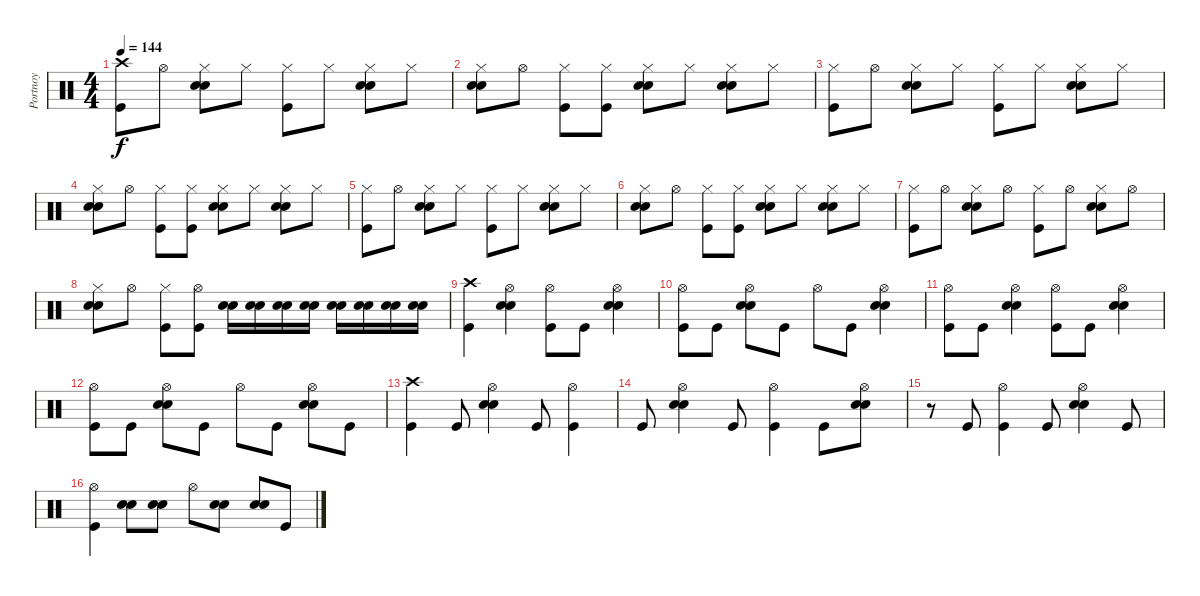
\track ("Portnoy" "Portnoy") {instrument percussion}
\staff {score}
\articulation defaults
\ts (4 4)
\tempo 144
\clef neutral
\ks c
("Crash high (hit)" "Kick (hit)").8{dy f} "Hi-Hat (open)".8 ("Hi-Hat (closed)" "Snare (hit) 2" "Electric Snare (hit)").8 "Hi-Hat (closed)".8 ("Hi-Hat (closed)" "Kick (hit)").8 "Hi-Hat (closed)".8 ("Hi-Hat (closed)" "Snare (hit) 2" "Electric Snare (hit)").8 "Hi-Hat (closed)".8 |
("Hi-Hat (closed)" "Snare (hit) 2" "Electric Snare (hit)").8 "Hi-Hat (open)".8 ("Hi-Hat (closed)" "Kick (hit)").8 ("Hi-Hat (closed)" "Kick (hit)").8 ("Hi-Hat (closed)" "Snare (hit) 2" "Electric Snare (hit)").8 "Hi-Hat (closed)".8 ("Hi-Hat (closed)" "Snare (hit) 2" "Electric Snare (hit)").8 "Hi-Hat (closed)".8 |
("Hi-Hat (closed)" "Kick (hit)").8 "Hi-Hat (open)".8 ("Hi-Hat (closed)" "Snare (hit) 2" "Electric Snare (hit)").8 "Hi-Hat (closed)".8 ("Hi-Hat (closed)" "Kick (hit)").8 "Hi-Hat (closed)".8 ("Hi-Hat (closed)" "Snare (hit) 2" "Electric Snare (hit)").8 "Hi-Hat (closed)".8 |
("Hi-Hat (closed)" "Snare (hit) 2" "Electric Snare (hit)").8 "Hi-Hat (open)".8 ("Hi-Hat (closed)" "Kick (hit)").8 ("Hi-Hat (closed)" "Kick (hit)").8 ("Hi-Hat (closed)" "Snare (hit) 2" "Electric Snare (hit)").8 "Hi-Hat (closed)".8 ("Hi-Hat (closed)" "Snare (hit) 2" "Electric Snare (hit)").8 "Hi-Hat (closed)".8 |
("Hi-Hat (closed)" "Kick (hit)").8 "Hi-Hat (open)".8 ("Hi-Hat (closed)" "Snare (hit) 2" "Electric Snare (hit)").8 "Hi-Hat (closed)".8 ("Hi-Hat (closed)" "Kick (hit)").8 "Hi-Hat (closed)".8 ("Hi-Hat (closed)" "Snare (hit) 2" "Electric Snare (hit)").8 "Hi-Hat (closed)".8 |
("Hi-Hat (closed)" "Snare (hit) 2" "Electric Snare (hit)").8 "Hi-Hat (open)".8 ("Hi-Hat (closed)" "Kick (hit)").8 ("Hi-Hat (closed)" "Kick (hit)").8 ("Hi-Hat (closed)" "Snare (hit) 2" "Electric Snare (hit)").8 "Hi-Hat (closed)".8 ("Hi-Hat (closed)" "Snare (hit) 2" "Electric Snare (hit)").8 "Hi-Hat (closed)".8 |
("Hi-Hat (closed)" "Kick (hit)").8 "Hi-Hat (open)".8 ("Hi-Hat (closed)" "Snare (hit) 2" "Electric Snare (hit)").8 "Hi-Hat (open)".8 ("Hi-Hat (closed)" "Kick (hit)").8 "Hi-Hat (open)".8 ("Hi-Hat (closed)" "Snare (hit) 2" "Electric Snare (hit)").8 "Hi-Hat (open)".8 |
("Hi-Hat (closed)" "Snare (hit) 2" "Electric Snare (hit)").8 "Hi-Hat (open)".8 ("Hi-Hat (closed)" "Kick (hit)").8 ("Hi-Hat (open)" "Kick (hit)").8 ("Snare (hit) 2" "Electric Snare (hit)").16 ("Snare (hit) 2" "Electric Snare (hit)").16 ("Snare (hit) 2" "Electric Snare (hit)").16 ("Snare (hit) 2" "Electric Snare (hit)").16 ("Snare (hit) 2" "Electric Snare (hit)").16 ("Snare (hit) 2" "Electric Snare (hit)").16 ("Snare (hit) 2" "Electric Snare (hit)").16 ("Snare (hit) 2" "Electric Snare (hit)").16 |
("Crash high (hit)" "Kick (hit)").4 ("Hi-Hat (open)" "Snare (hit) 2" "Electric Snare (hit)").4 ("Hi-Hat (open)" "Kick (hit)").8 "Kick (hit)".8 ("Hi-Hat (open)" "Snare (hit) 2" "Electric Snare (hit)").4 |
("Hi-Hat (open)" "Kick (hit)").8 "Kick (hit)".8 ("Hi-Hat (open)" "Snare (hit) 2" "Electric Snare (hit)").8 "Kick (hit)".8 "Hi-Hat (open)".8 "Kick (hit)".8 ("Hi-Hat (open)" "Snare (hit) 2" "Electric Snare (hit)").4 |
("Hi-Hat (open)" "Kick (hit)").8 "Kick (hit)".8 ("Hi-Hat (open)" "Snare (hit) 2" "Electric Snare (hit)").4 ("Hi-Hat (open)" "Kick (hit)").8 "Kick (hit)".8 ("Hi-Hat (open)" "Snare (hit) 2" "Electric Snare (hit)").4 |
("Hi-Hat (open)" "Kick (hit)").8 "Kick (hit)".8 ("Hi-Hat (open)" "Snare (hit) 2" "Electric Snare (hit)").8 "Kick (hit)".8 "Hi-Hat (open)".8 "Kick (hit)".8 ("Hi-Hat (open)" "Snare (hit) 2" "Electric Snare (hit)").8 "Kick (hit)".8 |
("Crash high (hit)" "Kick (hit)").4 "Kick (hit)".8 ("Hi-Hat (open)" "Snare (hit) 2" "Electric Snare (hit)").4 "Kick (hit)".8 ("Hi-Hat (open)" "Kick (hit)").4 |
"Kick (hit)".8 ("Hi-Hat (open)" "Snare (hit) 2" "Electric Snare (hit)").4 "Kick (hit)".8 ("Hi-Hat (open)" "Kick (hit)").4 "Kick (hit)".8 ("Hi-Hat (open)" "Snare (hit) 2" "Electric Snare (hit)").8 |
r.8 "Kick (hit)".8 ("Hi-Hat (open)" "Kick (hit)").4 "Kick (hit)".8 ("Hi-Hat (open)" "Snare (hit) 2" "Electric Snare (hit)").4 "Kick (hit)".8 |
("Hi-Hat (open)" "Kick (hit)").4 ("Snare (hit) 2" "Electric Snare (hit)").8 ("Snare (hit) 2" "Electric Snare (hit)").8 "Hi-Hat (open)".8 ("Snare (hit) 2" "Electric Snare (hit)").8 ("Snare (hit) 2" "Electric Snare (hit)").8 "Kick (hit)".8
